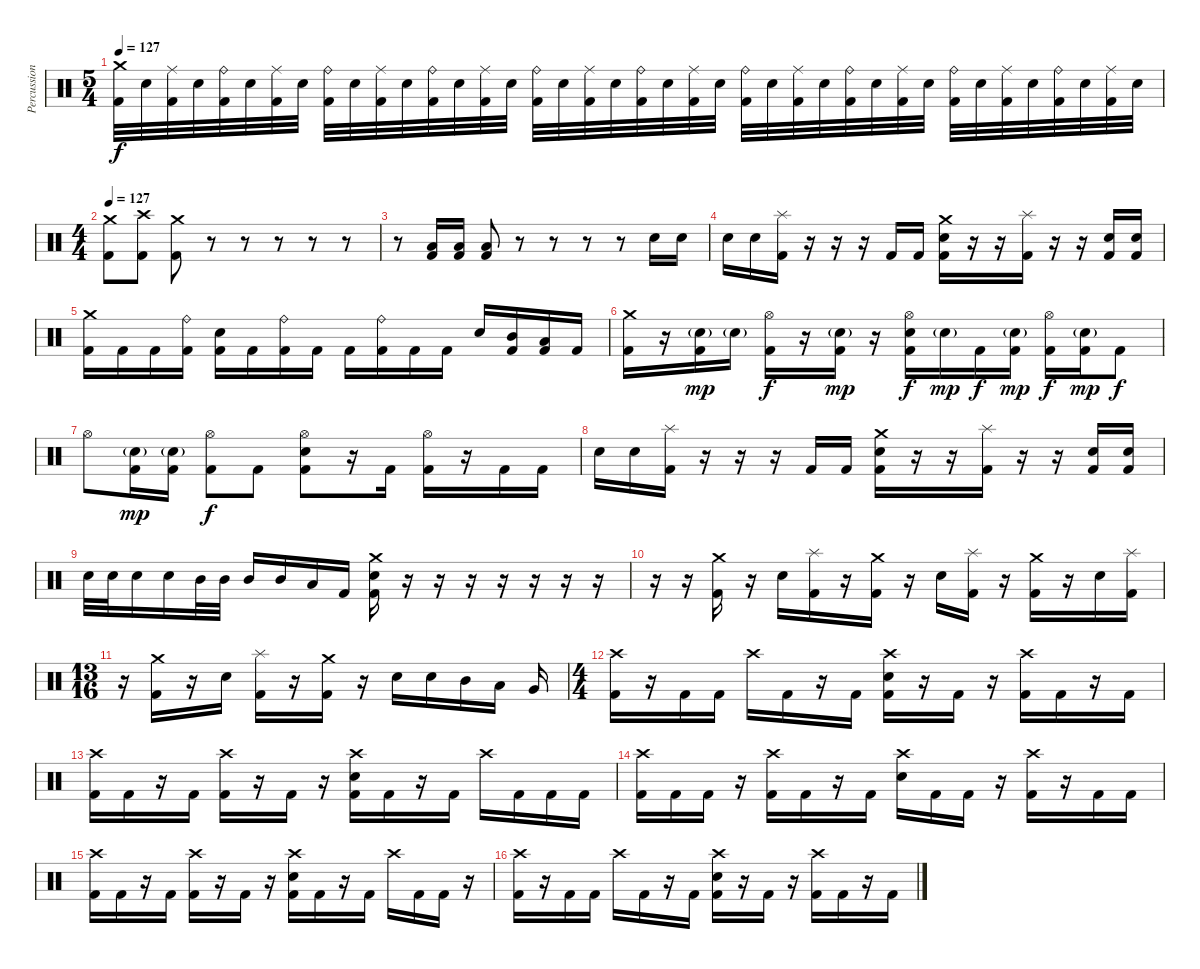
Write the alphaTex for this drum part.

\track ("Percussion" "Percussion") {instrument percussion}
\staff {score}
\articulation defaults
\ts (5 4)
\tempo 127
\clef neutral
\ks c
("Crash medium (hit)" "Kick (hit) 2").32{dy f} "Electric Snare (hit)".32 ("Ride (middle)" "Kick (hit) 2").32 "Electric Snare (hit)".32 ("Ride (bell)" "Kick (hit) 2").32 "Electric Snare (hit)".32 ("Ride (middle)" "Kick (hit) 2").32 "Electric Snare (hit)".32 ("Ride (bell)" "Kick (hit) 2").32 "Electric Snare (hit)".32 ("Ride (middle)" "Kick (hit) 2").32 "Electric Snare (hit)".32 ("Ride (bell)" "Kick (hit) 2").32 "Electric Snare (hit)".32 ("Ride (middle)" "Kick (hit) 2").32 "Electric Snare (hit)".32 ("Ride (bell)" "Kick (hit) 2").32 "Electric Snare (hit)".32 ("Ride (middle)" "Kick (hit) 2").32 "Electric Snare (hit)".32 ("Ride (bell)" "Kick (hit) 2").32 "Electric Snare (hit)".32 ("Ride (middle)" "Kick (hit) 2").32 "Electric Snare (hit)".32 ("Ride (bell)" "Kick (hit) 2").32 "Electric Snare (hit)".32 ("Ride (middle)" "Kick (hit) 2").32 "Electric Snare (hit)".32 ("Ride (bell)" "Kick (hit) 2").32 "Electric Snare (hit)".32 ("Ride (middle)" "Kick (hit) 2").32 "Electric Snare (hit)".32 ("Ride (bell)" "Kick (hit) 2").32 "Electric Snare (hit)".32 ("Ride (middle)" "Kick (hit) 2").32 "Electric Snare (hit)".32 ("Ride (bell)" "Kick (hit) 2").32 "Electric Snare (hit)".32 ("Ride (middle)" "Kick (hit) 2").32 "Electric Snare (hit)".32 |
\ts (4 4)
\tempo 127
("Crash medium (hit)" "Kick (hit) 2").8 ("Crash high (hit)" "Kick (hit) 2").8 ("Crash medium (hit)" "Kick (hit) 2").8 r.8{volume 0} r.8 r.8 r.8 r.8 |
r.8 ("Low Floor Tom (hit)" "Kick (hit) 2").16{volume 13} ("Low Floor Tom (hit)" "Kick (hit) 2").16 ("Low Floor Tom (hit)" "Kick (hit) 2").8 r.8 r.8 r.8 r.8 "Snare (hit) 2".16 "Snare (hit) 2".16 |
"Snare (hit) 2".16 "Snare (hit) 2".16 ("Splash (hit)" "Kick (hit) 2").16 r.16 r.16 r.16 "Kick (hit) 2".16 "Kick (hit) 2".16 ("Crash medium (hit)" "Snare (hit) 2" "Kick (hit) 2").16 r.16 r.16 ("Splash (hit)" "Kick (hit) 2").16 r.16 r.16 ("Snare (hit) 2" "Kick (hit) 2").16 ("Snare (hit) 2" "Kick (hit) 2").16 |
("Crash medium (hit)" "Kick (hit) 2").16 "Kick (hit) 2".16 "Kick (hit) 2".16 ("Ride (bell)" "Kick (hit) 2").16 ("Snare (hit) 2" "Kick (hit) 2").16 "Kick (hit) 2".16 ("Ride (bell)" "Kick (hit) 2").16 "Kick (hit) 2".16 "Kick (hit) 2".16 ("Ride (bell)" "Kick (hit) 2").16 "Kick (hit) 2".16 "Kick (hit) 2".16 "Snare (hit) 2".16 ("Mid Tom (hit)" "Kick (hit) 2").16 ("Low Tom (hit)" "Kick (hit) 2").16 "Kick (hit) 2".16 |
("Crash medium (hit)" "Kick (hit) 2").16 r.16 ("Snare (hit) 2"{g} "Kick (hit) 2").16{dy mp} "Snare (hit) 2"{g}.16 ("Hi-Hat (open)" "Kick (hit) 2").16{dy f} r.16 ("Snare (hit) 2"{g} "Kick (hit) 2").16{dy mp} r.16 ("Hi-Hat (open)" "Snare (hit) 2" "Kick (hit) 2").16{dy f} "Snare (hit) 2"{g}.16{dy mp} "Kick (hit) 2".16{dy f} ("Snare (hit) 2"{g} "Kick (hit) 2").16{dy mp} ("Hi-Hat (open)" "Kick (hit) 2").16{dy f} ("Snare (hit) 2"{g} "Kick (hit) 2").16{dy mp} "Kick (hit) 2".8{dy f} |
"Hi-Hat (open)".8 ("Snare (hit) 2"{g} "Kick (hit) 2").16{dy mp} ("Snare (hit) 2"{g} "Kick (hit) 2").16 ("Hi-Hat (open)" "Kick (hit) 2").8{dy f} "Kick (hit) 2".8 ("Hi-Hat (open)" "Snare (hit) 2" "Kick (hit) 2").8 r.16 "Kick (hit) 2".16 ("Hi-Hat (open)" "Kick (hit) 2").16 r.16 "Kick (hit) 2".16 "Kick (hit) 2".16 |
"Snare (hit) 2".16 "Snare (hit) 2".16 ("Splash (hit)" "Kick (hit) 2").16 r.16 r.16 r.16 "Kick (hit) 2".16 "Kick (hit) 2".16 ("Crash medium (hit)" "Snare (hit) 2" "Kick (hit) 2").16 r.16 r.16 ("Splash (hit)" "Kick (hit) 2").16 r.16 r.16 ("Snare (hit) 2" "Kick (hit) 2").16 ("Snare (hit) 2" "Kick (hit) 2").16 |
"Snare (hit) 2".32 "Snare (hit) 2".32 "Snare (hit) 2".16 "Snare (hit) 2".16 "Mid Tom (hit)".32 "Mid Tom (hit)".32 "Mid Tom (hit)".16 "Mid Tom (hit)".16 "Low Tom (hit)".16 "Kick (hit) 2".16 ("Crash medium (hit)" "Snare (hit) 2" "Kick (hit) 2").16 r.16{volume 0} r.16 r.16 r.16 r.16 r.16 r.16 |
r.16 r.16 ("Crash medium (hit)" "Kick (hit) 2").16{volume 13} r.16 "Electric Snare (hit)".16 ("Splash (hit)" "Kick (hit) 2").16 r.16 ("Crash medium (hit)" "Kick (hit) 2").16 r.16 "Electric Snare (hit)".16 ("Splash (hit)" "Kick (hit) 2").16 r.16 ("Crash medium (hit)" "Kick (hit) 2").16 r.16 "Electric Snare (hit)".16 ("Splash (hit)" "Kick (hit) 2").16 |
\ts (13 16)
r.16 ("Crash medium (hit)" "Kick (hit) 2").16 r.16 "Electric Snare (hit)".16 ("Splash (hit)" "Kick (hit) 2").16 r.16 ("Crash medium (hit)" "Kick (hit) 2").16 r.16 "Electric Snare (hit)".16 "Electric Snare (hit)".16 "Mid Tom (hit)".16 "Low Tom (hit)".16 "Very Low Tom (hit)".16 |
\ts (4 4)
("Crash high (hit)" "Kick (hit) 2").16 r.16 "Kick (hit) 2".16 "Kick (hit) 2".16 "Crash high (hit)".16 "Kick (hit) 2".16 r.16 "Kick (hit) 2".16 ("Crash high (hit)" "Electric Snare (hit)" "Kick (hit) 2").16 r.16 "Kick (hit) 2".16 r.16 ("Crash high (hit)" "Kick (hit) 2").16 "Kick (hit) 2".16 r.16 "Kick (hit) 2".16 |
("Crash high (hit)" "Kick (hit) 2").16 "Kick (hit) 2".16 r.16 "Kick (hit) 2".16 ("Crash high (hit)" "Kick (hit) 2").16 r.16 "Kick (hit) 2".16 r.16 ("Crash high (hit)" "Electric Snare (hit)" "Kick (hit) 2").16 "Kick (hit) 2".16 r.16 "Kick (hit) 2".16 "Crash high (hit)".16 "Kick (hit) 2".16 "Kick (hit) 2".16 "Kick (hit) 2".16 |
("Crash high (hit)" "Kick (hit) 2").16 "Kick (hit) 2".16 "Kick (hit) 2".16 r.16 ("Crash high (hit)" "Kick (hit) 2").16 "Kick (hit) 2".16 r.16 "Kick (hit) 2".16 ("Crash high (hit)" "Electric Snare (hit)").16 "Kick (hit) 2".16 "Kick (hit) 2".16 r.16 ("Crash high (hit)" "Kick (hit) 2").16 r.16 "Kick (hit) 2".16 "Kick (hit) 2".16 |
("Crash high (hit)" "Kick (hit) 2").16 "Kick (hit) 2".16 r.16 "Kick (hit) 2".16 ("Crash high (hit)" "Kick (hit) 2").16 r.16 "Kick (hit) 2".16 r.16 ("Crash high (hit)" "Electric Snare (hit)" "Kick (hit) 2").16 "Kick (hit) 2".16 r.16 "Kick (hit) 2".16 "Crash high (hit)".16 "Kick (hit) 2".16 "Kick (hit) 2".16 r.16 |
("Crash high (hit)" "Kick (hit) 2").16 r.16 "Kick (hit) 2".16 "Kick (hit) 2".16 "Crash high (hit)".16 "Kick (hit) 2".16 r.16 "Kick (hit) 2".16 ("Crash high (hit)" "Electric Snare (hit)" "Kick (hit) 2").16 r.16 "Kick (hit) 2".16 r.16 ("Crash high (hit)" "Kick (hit) 2").16 "Kick (hit) 2".16 r.16 "Kick (hit) 2".16
